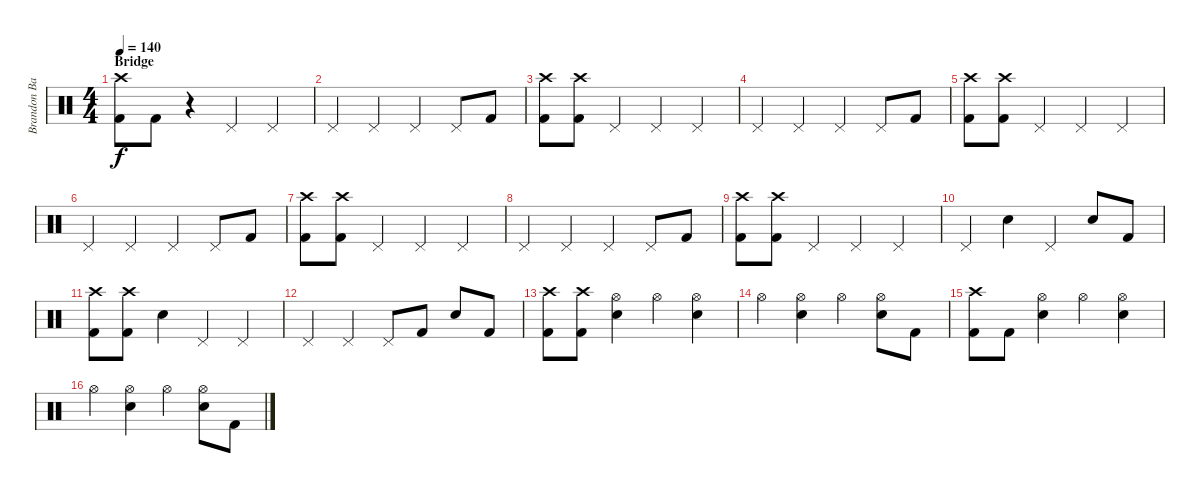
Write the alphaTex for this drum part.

\track ("Brandon Barnes - Drums" "Brandon Ba") {instrument percussion}
\staff {score}
\articulation defaults
\ts (4 4)
\section ("" "Bridge")
\tempo 140
\clef neutral
\ks c
("Crash high (hit)" "Kick (hit) 2").8{dy f} "Kick (hit) 2".8 r.4 "Pedal Hi-Hat (hit)".4 "Pedal Hi-Hat (hit)".4 |
"Pedal Hi-Hat (hit)".4 "Pedal Hi-Hat (hit)".4 "Pedal Hi-Hat (hit)".4 "Pedal Hi-Hat (hit)".8 "Kick (hit) 2".8 |
("Crash high (hit)" "Kick (hit) 2").8 ("Crash high (hit)" "Kick (hit) 2").8 "Pedal Hi-Hat (hit)".4 "Pedal Hi-Hat (hit)".4 "Pedal Hi-Hat (hit)".4 |
"Pedal Hi-Hat (hit)".4 "Pedal Hi-Hat (hit)".4 "Pedal Hi-Hat (hit)".4 "Pedal Hi-Hat (hit)".8 "Kick (hit) 2".8 |
("Crash high (hit)" "Kick (hit) 2").8 ("Crash high (hit)" "Kick (hit) 2").8 "Pedal Hi-Hat (hit)".4 "Pedal Hi-Hat (hit)".4 "Pedal Hi-Hat (hit)".4 |
"Pedal Hi-Hat (hit)".4 "Pedal Hi-Hat (hit)".4 "Pedal Hi-Hat (hit)".4 "Pedal Hi-Hat (hit)".8 "Kick (hit) 2".8 |
("Crash high (hit)" "Kick (hit) 2").8 ("Crash high (hit)" "Kick (hit) 2").8 "Pedal Hi-Hat (hit)".4 "Pedal Hi-Hat (hit)".4 "Pedal Hi-Hat (hit)".4 |
"Pedal Hi-Hat (hit)".4 "Pedal Hi-Hat (hit)".4 "Pedal Hi-Hat (hit)".4 "Pedal Hi-Hat (hit)".8 "Kick (hit) 2".8 |
("Crash high (hit)" "Kick (hit) 2").8 ("Crash high (hit)" "Kick (hit) 2").8 "Pedal Hi-Hat (hit)".4 "Pedal Hi-Hat (hit)".4 "Pedal Hi-Hat (hit)".4 |
"Pedal Hi-Hat (hit)".4 "Snare (hit) 2".4 "Pedal Hi-Hat (hit)".4 "Snare (hit) 2".8 "Kick (hit) 2".8 |
("Crash high (hit)" "Kick (hit) 2").8 ("Crash high (hit)" "Kick (hit) 2").8 "Snare (hit) 2".4 "Pedal Hi-Hat (hit)".4 "Pedal Hi-Hat (hit)".4 |
"Pedal Hi-Hat (hit)".4 "Pedal Hi-Hat (hit)".4 "Pedal Hi-Hat (hit)".8 "Kick (hit) 2".8 "Snare (hit) 2".8 "Kick (hit) 2".8 |
("Crash high (hit)" "Kick (hit) 2").8 ("Crash high (hit)" "Kick (hit) 2").8 ("Hi-Hat (open)" "Snare (hit) 2").4 "Hi-Hat (open)".4 ("Hi-Hat (open)" "Snare (hit) 2").4 |
"Hi-Hat (open)".4 ("Hi-Hat (open)" "Snare (hit) 2").4 "Hi-Hat (open)".4 ("Hi-Hat (open)" "Snare (hit) 2").8 "Kick (hit) 2".8 |
("Crash high (hit)" "Kick (hit) 2").8 "Kick (hit) 2".8 ("Hi-Hat (open)" "Snare (hit) 2").4 "Hi-Hat (open)".4 ("Hi-Hat (open)" "Snare (hit) 2").4 |
"Hi-Hat (open)".4 ("Hi-Hat (open)" "Snare (hit) 2").4 "Hi-Hat (open)".4 ("Hi-Hat (open)" "Snare (hit) 2").8 "Kick (hit) 2".8
